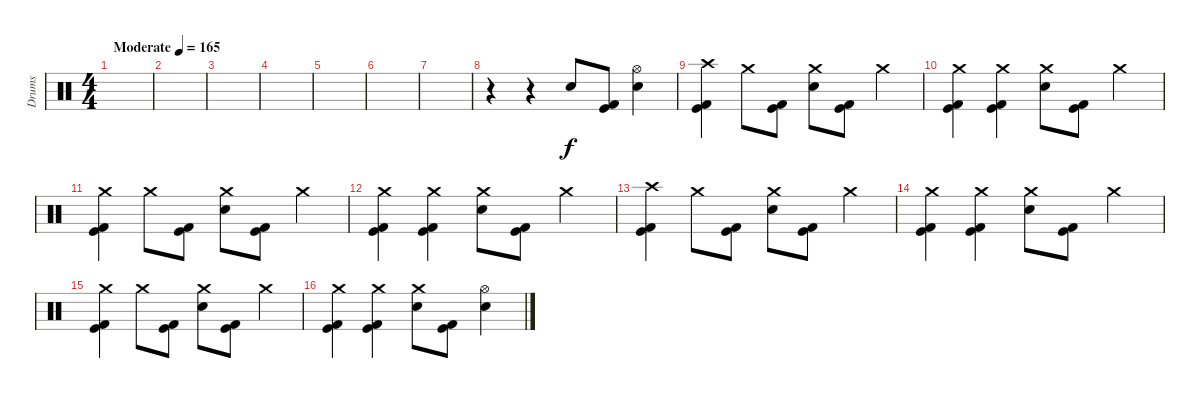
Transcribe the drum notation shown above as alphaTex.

\track ("Drums" "Drums") {instrument percussion}
\staff {score}
\articulation defaults
\ts (4 4)
\tempo (165 "Moderate")
\clef neutral
\ks c
|
|
|
|
|
|
|
r.4 r.4 "Electric Snare (hit)".8 ("Kick (hit)" "Kick (hit) 2").8 ("Hi-Hat (open)" "Electric Snare (hit)").4 |
("Crash high (hit)" "Kick (hit) 2" "Kick (hit)").4 "Crash medium (hit)".8 ("Kick (hit)" "Kick (hit) 2").8 ("Crash medium (hit)" "Electric Snare (hit)").8 ("Kick (hit)" "Kick (hit) 2").8 "Crash medium (hit)".4 |
("Crash medium (hit)" "Kick (hit)" "Kick (hit) 2").4 ("Crash medium (hit)" "Kick (hit)" "Kick (hit) 2").4 ("Crash medium (hit)" "Electric Snare (hit)").8 ("Kick (hit)" "Kick (hit) 2").8 "Crash medium (hit)".4 |
("Crash medium (hit)" "Kick (hit) 2" "Kick (hit)").4 "Crash medium (hit)".8 ("Kick (hit)" "Kick (hit) 2").8 ("Crash medium (hit)" "Electric Snare (hit)").8 ("Kick (hit)" "Kick (hit) 2").8 "Crash medium (hit)".4 |
("Crash medium (hit)" "Kick (hit)" "Kick (hit) 2").4 ("Crash medium (hit)" "Kick (hit)" "Kick (hit) 2").4 ("Crash medium (hit)" "Electric Snare (hit)").8 ("Kick (hit)" "Kick (hit) 2").8 "Crash medium (hit)".4 |
("Crash high (hit)" "Kick (hit) 2" "Kick (hit)").4 "Crash medium (hit)".8 ("Kick (hit)" "Kick (hit) 2").8 ("Crash medium (hit)" "Electric Snare (hit)").8 ("Kick (hit)" "Kick (hit) 2").8 "Crash medium (hit)".4 |
("Crash medium (hit)" "Kick (hit)" "Kick (hit) 2").4 ("Crash medium (hit)" "Kick (hit)" "Kick (hit) 2").4 ("Crash medium (hit)" "Electric Snare (hit)").8 ("Kick (hit)" "Kick (hit) 2").8 "Crash medium (hit)".4 |
("Crash medium (hit)" "Kick (hit) 2" "Kick (hit)").4 "Crash medium (hit)".8 ("Kick (hit)" "Kick (hit) 2").8 ("Crash medium (hit)" "Electric Snare (hit)").8 ("Kick (hit)" "Kick (hit) 2").8 "Crash medium (hit)".4 |
("Crash medium (hit)" "Kick (hit)" "Kick (hit) 2").4 ("Crash medium (hit)" "Kick (hit)" "Kick (hit) 2").4 ("Crash medium (hit)" "Electric Snare (hit)").8 ("Kick (hit)" "Kick (hit) 2").8 ("Hi-Hat (open)" "Electric Snare (hit)").4
